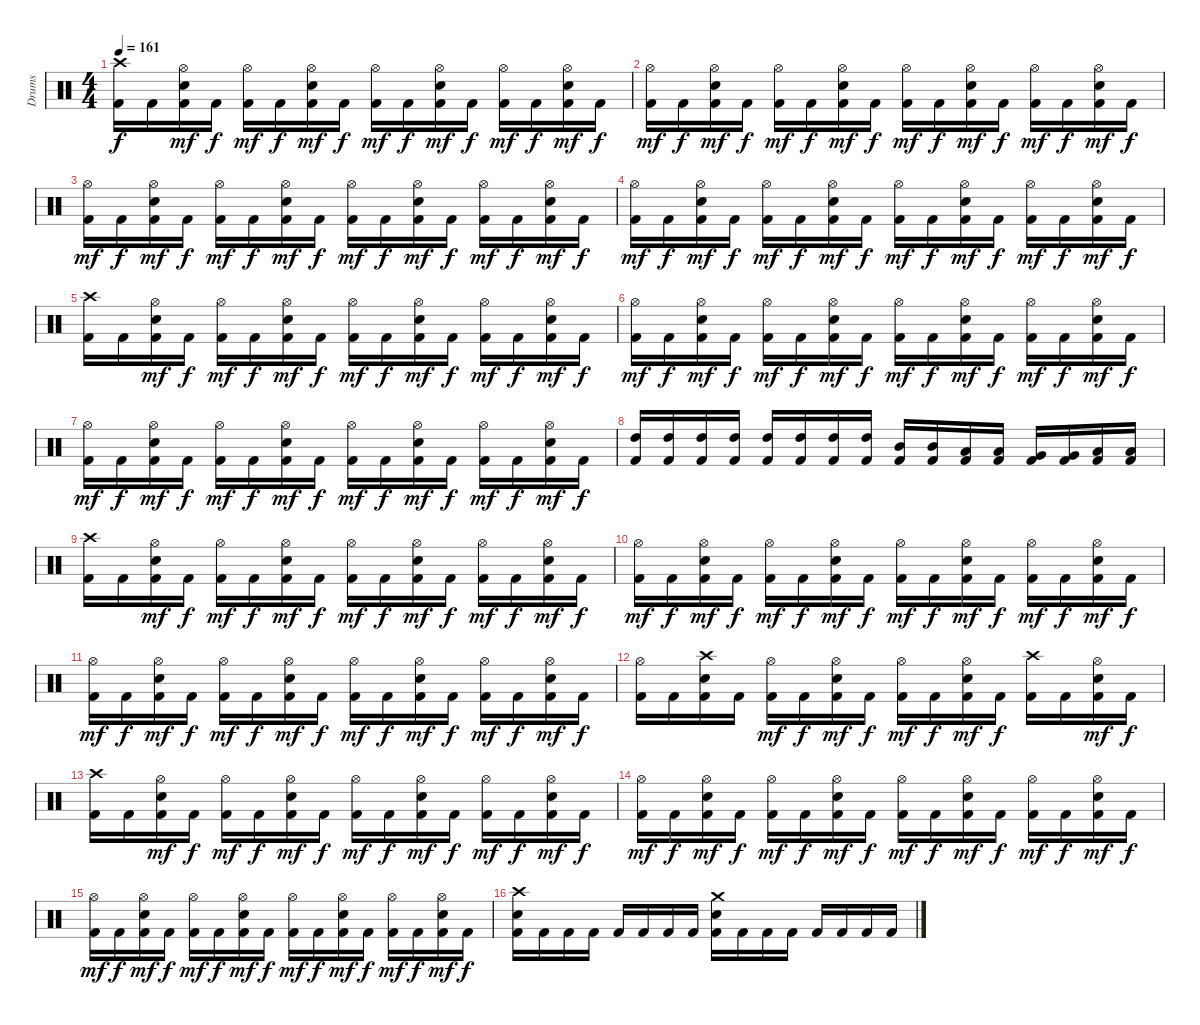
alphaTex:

\track ("Drums" "Drums") {instrument percussion}
\staff {score}
\articulation defaults
\ts (4 4)
\tempo 161
\clef neutral
\ks c
("Crash high (hit)" "Kick (hit) 2").16{dy f} "Kick (hit) 2".16 ("Hi-Hat (open)" "Electric Snare (hit)" "Kick (hit) 2").16{dy mf} "Kick (hit) 2".16{dy f} ("Hi-Hat (open)" "Kick (hit) 2").16{dy mf} "Kick (hit) 2".16{dy f} ("Hi-Hat (open)" "Electric Snare (hit)" "Kick (hit) 2").16{dy mf} "Kick (hit) 2".16{dy f} ("Hi-Hat (open)" "Kick (hit) 2").16{dy mf} "Kick (hit) 2".16{dy f} ("Hi-Hat (open)" "Electric Snare (hit)" "Kick (hit) 2").16{dy mf} "Kick (hit) 2".16{dy f} ("Hi-Hat (open)" "Kick (hit) 2").16{dy mf} "Kick (hit) 2".16{dy f} ("Hi-Hat (open)" "Electric Snare (hit)" "Kick (hit) 2").16{dy mf} "Kick (hit) 2".16{dy f} |
("Hi-Hat (open)" "Kick (hit) 2").16{dy mf} "Kick (hit) 2".16{dy f} ("Hi-Hat (open)" "Electric Snare (hit)" "Kick (hit) 2").16{dy mf} "Kick (hit) 2".16{dy f} ("Hi-Hat (open)" "Kick (hit) 2").16{dy mf} "Kick (hit) 2".16{dy f} ("Hi-Hat (open)" "Electric Snare (hit)" "Kick (hit) 2").16{dy mf} "Kick (hit) 2".16{dy f} ("Hi-Hat (open)" "Kick (hit) 2").16{dy mf} "Kick (hit) 2".16{dy f} ("Hi-Hat (open)" "Electric Snare (hit)" "Kick (hit) 2").16{dy mf} "Kick (hit) 2".16{dy f} ("Hi-Hat (open)" "Kick (hit) 2").16{dy mf} "Kick (hit) 2".16{dy f} ("Hi-Hat (open)" "Electric Snare (hit)" "Kick (hit) 2").16{dy mf} "Kick (hit) 2".16{dy f} |
("Hi-Hat (open)" "Kick (hit) 2").16{dy mf} "Kick (hit) 2".16{dy f} ("Hi-Hat (open)" "Electric Snare (hit)" "Kick (hit) 2").16{dy mf} "Kick (hit) 2".16{dy f} ("Hi-Hat (open)" "Kick (hit) 2").16{dy mf} "Kick (hit) 2".16{dy f} ("Hi-Hat (open)" "Electric Snare (hit)" "Kick (hit) 2").16{dy mf} "Kick (hit) 2".16{dy f} ("Hi-Hat (open)" "Kick (hit) 2").16{dy mf} "Kick (hit) 2".16{dy f} ("Hi-Hat (open)" "Electric Snare (hit)" "Kick (hit) 2").16{dy mf} "Kick (hit) 2".16{dy f} ("Hi-Hat (open)" "Kick (hit) 2").16{dy mf} "Kick (hit) 2".16{dy f} ("Hi-Hat (open)" "Electric Snare (hit)" "Kick (hit) 2").16{dy mf} "Kick (hit) 2".16{dy f} |
("Hi-Hat (open)" "Kick (hit) 2").16{dy mf} "Kick (hit) 2".16{dy f} ("Hi-Hat (open)" "Electric Snare (hit)" "Kick (hit) 2").16{dy mf} "Kick (hit) 2".16{dy f} ("Hi-Hat (open)" "Kick (hit) 2").16{dy mf} "Kick (hit) 2".16{dy f} ("Hi-Hat (open)" "Electric Snare (hit)" "Kick (hit) 2").16{dy mf} "Kick (hit) 2".16{dy f} ("Hi-Hat (open)" "Kick (hit) 2").16{dy mf} "Kick (hit) 2".16{dy f} ("Hi-Hat (open)" "Electric Snare (hit)" "Kick (hit) 2").16{dy mf} "Kick (hit) 2".16{dy f} ("Hi-Hat (open)" "Kick (hit) 2").16{dy mf} "Kick (hit) 2".16{dy f} ("Hi-Hat (open)" "Electric Snare (hit)" "Kick (hit) 2").16{dy mf} "Kick (hit) 2".16{dy f} |
("Crash high (hit)" "Kick (hit) 2").16 "Kick (hit) 2".16 ("Hi-Hat (open)" "Electric Snare (hit)" "Kick (hit) 2").16{dy mf} "Kick (hit) 2".16{dy f} ("Hi-Hat (open)" "Kick (hit) 2").16{dy mf} "Kick (hit) 2".16{dy f} ("Hi-Hat (open)" "Electric Snare (hit)" "Kick (hit) 2").16{dy mf} "Kick (hit) 2".16{dy f} ("Hi-Hat (open)" "Kick (hit) 2").16{dy mf} "Kick (hit) 2".16{dy f} ("Hi-Hat (open)" "Electric Snare (hit)" "Kick (hit) 2").16{dy mf} "Kick (hit) 2".16{dy f} ("Hi-Hat (open)" "Kick (hit) 2").16{dy mf} "Kick (hit) 2".16{dy f} ("Hi-Hat (open)" "Electric Snare (hit)" "Kick (hit) 2").16{dy mf} "Kick (hit) 2".16{dy f} |
("Hi-Hat (open)" "Kick (hit) 2").16{dy mf} "Kick (hit) 2".16{dy f} ("Hi-Hat (open)" "Electric Snare (hit)" "Kick (hit) 2").16{dy mf} "Kick (hit) 2".16{dy f} ("Hi-Hat (open)" "Kick (hit) 2").16{dy mf} "Kick (hit) 2".16{dy f} ("Hi-Hat (open)" "Electric Snare (hit)" "Kick (hit) 2").16{dy mf} "Kick (hit) 2".16{dy f} ("Hi-Hat (open)" "Kick (hit) 2").16{dy mf} "Kick (hit) 2".16{dy f} ("Hi-Hat (open)" "Electric Snare (hit)" "Kick (hit) 2").16{dy mf} "Kick (hit) 2".16{dy f} ("Hi-Hat (open)" "Kick (hit) 2").16{dy mf} "Kick (hit) 2".16{dy f} ("Hi-Hat (open)" "Electric Snare (hit)" "Kick (hit) 2").16{dy mf} "Kick (hit) 2".16{dy f} |
("Hi-Hat (open)" "Kick (hit) 2").16{dy mf} "Kick (hit) 2".16{dy f} ("Hi-Hat (open)" "Electric Snare (hit)" "Kick (hit) 2").16{dy mf} "Kick (hit) 2".16{dy f} ("Hi-Hat (open)" "Kick (hit) 2").16{dy mf} "Kick (hit) 2".16{dy f} ("Hi-Hat (open)" "Electric Snare (hit)" "Kick (hit) 2").16{dy mf} "Kick (hit) 2".16{dy f} ("Hi-Hat (open)" "Kick (hit) 2").16{dy mf} "Kick (hit) 2".16{dy f} ("Hi-Hat (open)" "Electric Snare (hit)" "Kick (hit) 2").16{dy mf} "Kick (hit) 2".16{dy f} ("Hi-Hat (open)" "Kick (hit) 2").16{dy mf} "Kick (hit) 2".16{dy f} ("Hi-Hat (open)" "Electric Snare (hit)" "Kick (hit) 2").16{dy mf} "Kick (hit) 2".16{dy f} |
("High Tom (hit)" "Kick (hit) 2").16 ("High Tom (hit)" "Kick (hit) 2").16 ("High Tom (hit)" "Kick (hit) 2").16 ("High Tom (hit)" "Kick (hit) 2").16 ("High Tom (hit)" "Kick (hit) 2").16 ("High Tom (hit)" "Kick (hit) 2").16 ("High Tom (hit)" "Kick (hit) 2").16 ("High Tom (hit)" "Kick (hit) 2").16 ("Mid Tom (hit)" "Kick (hit) 2").16 ("Mid Tom (hit)" "Kick (hit) 2").16 ("Low Tom (hit)" "Kick (hit) 2").16 ("Low Tom (hit)" "Kick (hit) 2").16 ("Very Low Tom (hit)" "Kick (hit) 2").16 ("Very Low Tom (hit)" "Kick (hit) 2").16 ("Low Floor Tom (hit)" "Kick (hit) 2").16 ("Low Floor Tom (hit)" "Kick (hit) 2").16 |
("Crash high (hit)" "Kick (hit) 2").16 "Kick (hit) 2".16 ("Hi-Hat (open)" "Electric Snare (hit)" "Kick (hit) 2").16{dy mf} "Kick (hit) 2".16{dy f} ("Hi-Hat (open)" "Kick (hit) 2").16{dy mf} "Kick (hit) 2".16{dy f} ("Hi-Hat (open)" "Electric Snare (hit)" "Kick (hit) 2").16{dy mf} "Kick (hit) 2".16{dy f} ("Hi-Hat (open)" "Kick (hit) 2").16{dy mf} "Kick (hit) 2".16{dy f} ("Hi-Hat (open)" "Electric Snare (hit)" "Kick (hit) 2").16{dy mf} "Kick (hit) 2".16{dy f} ("Hi-Hat (open)" "Kick (hit) 2").16{dy mf} "Kick (hit) 2".16{dy f} ("Hi-Hat (open)" "Electric Snare (hit)" "Kick (hit) 2").16{dy mf} "Kick (hit) 2".16{dy f} |
("Hi-Hat (open)" "Kick (hit) 2").16{dy mf} "Kick (hit) 2".16{dy f} ("Hi-Hat (open)" "Electric Snare (hit)" "Kick (hit) 2").16{dy mf} "Kick (hit) 2".16{dy f} ("Hi-Hat (open)" "Kick (hit) 2").16{dy mf} "Kick (hit) 2".16{dy f} ("Hi-Hat (open)" "Electric Snare (hit)" "Kick (hit) 2").16{dy mf} "Kick (hit) 2".16{dy f} ("Hi-Hat (open)" "Kick (hit) 2").16{dy mf} "Kick (hit) 2".16{dy f} ("Hi-Hat (open)" "Electric Snare (hit)" "Kick (hit) 2").16{dy mf} "Kick (hit) 2".16{dy f} ("Hi-Hat (open)" "Kick (hit) 2").16{dy mf} "Kick (hit) 2".16{dy f} ("Hi-Hat (open)" "Electric Snare (hit)" "Kick (hit) 2").16{dy mf} "Kick (hit) 2".16{dy f} |
("Hi-Hat (open)" "Kick (hit) 2").16{dy mf} "Kick (hit) 2".16{dy f} ("Hi-Hat (open)" "Electric Snare (hit)" "Kick (hit) 2").16{dy mf} "Kick (hit) 2".16{dy f} ("Hi-Hat (open)" "Kick (hit) 2").16{dy mf} "Kick (hit) 2".16{dy f} ("Hi-Hat (open)" "Electric Snare (hit)" "Kick (hit) 2").16{dy mf} "Kick (hit) 2".16{dy f} ("Hi-Hat (open)" "Kick (hit) 2").16{dy mf} "Kick (hit) 2".16{dy f} ("Hi-Hat (open)" "Electric Snare (hit)" "Kick (hit) 2").16{dy mf} "Kick (hit) 2".16{dy f} ("Hi-Hat (open)" "Kick (hit) 2").16{dy mf} "Kick (hit) 2".16{dy f} ("Hi-Hat (open)" "Electric Snare (hit)" "Kick (hit) 2").16{dy mf} "Kick (hit) 2".16{dy f} |
("Hi-Hat (open)" "Kick (hit) 2").16 "Kick (hit) 2".16 ("Crash high (hit)" "Electric Snare (hit)" "Kick (hit) 2").16 "Kick (hit) 2".16 ("Hi-Hat (open)" "Kick (hit) 2").16{dy mf} "Kick (hit) 2".16{dy f} ("Hi-Hat (open)" "Electric Snare (hit)" "Kick (hit) 2").16{dy mf} "Kick (hit) 2".16{dy f} ("Hi-Hat (open)" "Kick (hit) 2").16{dy mf} "Kick (hit) 2".16{dy f} ("Hi-Hat (open)" "Electric Snare (hit)" "Kick (hit) 2").16{dy mf} "Kick (hit) 2".16{dy f} ("Crash high (hit)" "Kick (hit) 2").16 "Kick (hit) 2".16 ("Hi-Hat (open)" "Electric Snare (hit)" "Kick (hit) 2").16{dy mf} "Kick (hit) 2".16{dy f} |
("Crash high (hit)" "Kick (hit) 2").16 "Kick (hit) 2".16 ("Hi-Hat (open)" "Electric Snare (hit)" "Kick (hit) 2").16{dy mf} "Kick (hit) 2".16{dy f} ("Hi-Hat (open)" "Kick (hit) 2").16{dy mf} "Kick (hit) 2".16{dy f} ("Hi-Hat (open)" "Electric Snare (hit)" "Kick (hit) 2").16{dy mf} "Kick (hit) 2".16{dy f} ("Hi-Hat (open)" "Kick (hit) 2").16{dy mf} "Kick (hit) 2".16{dy f} ("Hi-Hat (open)" "Electric Snare (hit)" "Kick (hit) 2").16{dy mf} "Kick (hit) 2".16{dy f} ("Hi-Hat (open)" "Kick (hit) 2").16{dy mf} "Kick (hit) 2".16{dy f} ("Hi-Hat (open)" "Electric Snare (hit)" "Kick (hit) 2").16{dy mf} "Kick (hit) 2".16{dy f} |
("Hi-Hat (open)" "Kick (hit) 2").16{dy mf} "Kick (hit) 2".16{dy f} ("Hi-Hat (open)" "Electric Snare (hit)" "Kick (hit) 2").16{dy mf} "Kick (hit) 2".16{dy f} ("Hi-Hat (open)" "Kick (hit) 2").16{dy mf} "Kick (hit) 2".16{dy f} ("Hi-Hat (open)" "Electric Snare (hit)" "Kick (hit) 2").16{dy mf} "Kick (hit) 2".16{dy f} ("Hi-Hat (open)" "Kick (hit) 2").16{dy mf} "Kick (hit) 2".16{dy f} ("Hi-Hat (open)" "Electric Snare (hit)" "Kick (hit) 2").16{dy mf} "Kick (hit) 2".16{dy f} ("Hi-Hat (open)" "Kick (hit) 2").16{dy mf} "Kick (hit) 2".16{dy f} ("Hi-Hat (open)" "Electric Snare (hit)" "Kick (hit) 2").16{dy mf} "Kick (hit) 2".16{dy f} |
("Hi-Hat (open)" "Kick (hit) 2").16{dy mf} "Kick (hit) 2".16{dy f} ("Hi-Hat (open)" "Electric Snare (hit)" "Kick (hit) 2").16{dy mf} "Kick (hit) 2".16{dy f} ("Hi-Hat (open)" "Kick (hit) 2").16{dy mf} "Kick (hit) 2".16{dy f} ("Hi-Hat (open)" "Electric Snare (hit)" "Kick (hit) 2").16{dy mf} "Kick (hit) 2".16{dy f} ("Hi-Hat (open)" "Kick (hit) 2").16{dy mf} "Kick (hit) 2".16{dy f} ("Hi-Hat (open)" "Electric Snare (hit)" "Kick (hit) 2").16{dy mf} "Kick (hit) 2".16{dy f} ("Hi-Hat (open)" "Kick (hit) 2").16{dy mf} "Kick (hit) 2".16{dy f} ("Hi-Hat (open)" "Electric Snare (hit)" "Kick (hit) 2").16{dy mf} "Kick (hit) 2".16{dy f} |
("Crash high (hit)" "Electric Snare (hit)" "Kick (hit) 2").16 "Kick (hit) 2".16 "Kick (hit) 2".16 "Kick (hit) 2".16 "Kick (hit) 2".16 "Kick (hit) 2".16 "Kick (hit) 2".16 "Kick (hit) 2".16 ("Crash medium (hit)" "Electric Snare (hit)" "Kick (hit) 2").16 "Kick (hit) 2".16 "Kick (hit) 2".16 "Kick (hit) 2".16 "Kick (hit) 2".16 "Kick (hit) 2".16 "Kick (hit) 2".16 "Kick (hit) 2".16
